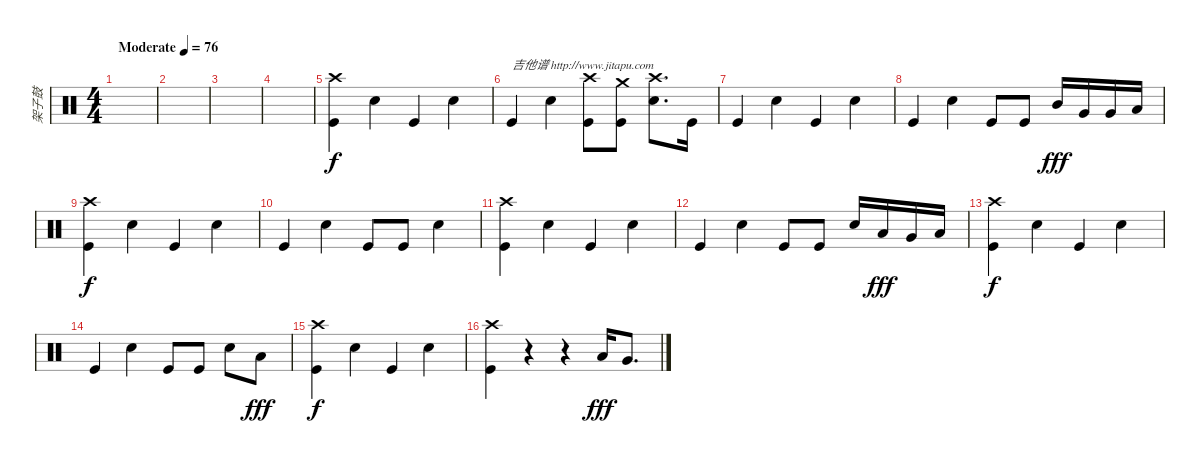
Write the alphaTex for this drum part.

\track ("架子鼓" "架子鼓") {instrument percussion}
\staff {score}
\articulation defaults
\ts (4 4)
\tempo (76 "Moderate")
\clef neutral
\ks c
|
|
|
|
("Kick (hit)" "Crash high (hit)").4 "Electric Snare (hit)".4 "Kick (hit)".4 "Electric Snare (hit)".4 |
"Kick (hit)".4{txt "吉他谱 http://www.jitapu.com"} "Electric Snare (hit)".4 ("Kick (hit)" "Crash high (hit)").8 ("Kick (hit)" "Crash medium (hit)").8 ("Electric Snare (hit)" "Crash high (hit)").8{d} "Kick (hit)".16 |
"Kick (hit)".4 "Electric Snare (hit)".4 "Kick (hit)".4 "Electric Snare (hit)".4 |
"Kick (hit)".4 "Electric Snare (hit)".4 "Kick (hit)".8 "Kick (hit)".8 "Mid Tom (hit)".16{dy fff} "Very Low Tom (hit)".16 "Very Low Tom (hit)".16 "Low Floor Tom (hit)".16 |
("Kick (hit)" "Crash high (hit)").4{dy f} "Electric Snare (hit)".4 "Kick (hit)".4 "Electric Snare (hit)".4 |
"Kick (hit)".4 "Electric Snare (hit)".4 "Kick (hit)".8 "Kick (hit)".8 "Electric Snare (hit)".4 |
("Kick (hit)" "Crash high (hit)").4 "Electric Snare (hit)".4 "Kick (hit)".4 "Electric Snare (hit)".4 |
"Kick (hit)".4 "Electric Snare (hit)".4 "Kick (hit)".8 "Kick (hit)".8 "Electric Snare (hit)".16 "Low Tom (hit)".16{dy fff} "Very Low Tom (hit)".16 "Low Floor Tom (hit)".16 |
("Kick (hit)" "Crash high (hit)").4{dy f} "Electric Snare (hit)".4 "Kick (hit)".4 "Electric Snare (hit)".4 |
"Kick (hit)".4 "Electric Snare (hit)".4 "Kick (hit)".8 "Kick (hit)".8 "Electric Snare (hit)".8 "Low Floor Tom (hit)".8{dy fff} |
("Kick (hit)" "Crash high (hit)").4{dy f} "Electric Snare (hit)".4 "Kick (hit)".4 "Electric Snare (hit)".4 |
("Kick (hit)" "Crash high (hit)").4 r.4 r.4 "Low Floor Tom (hit)".16{dy fff} "Very Low Tom (hit)".8{d}
